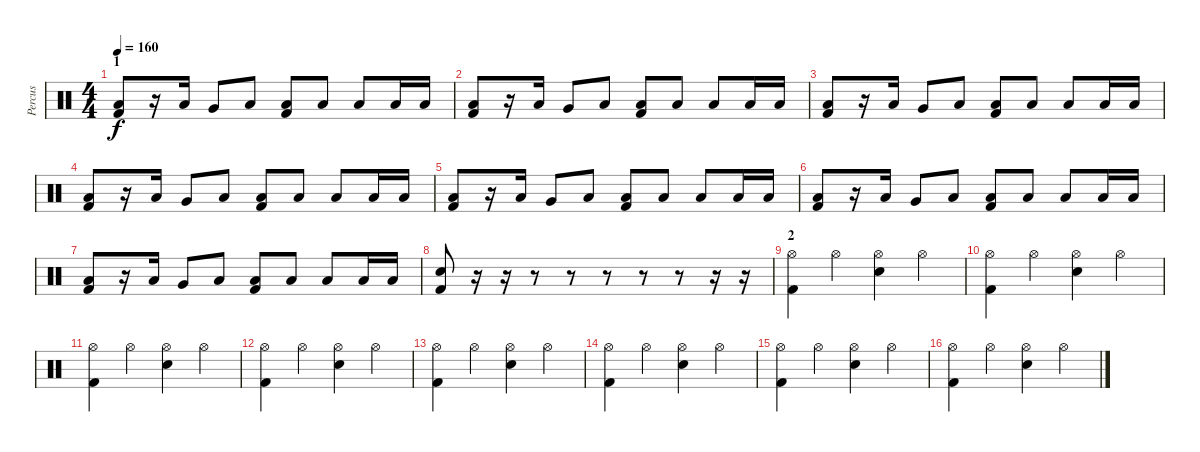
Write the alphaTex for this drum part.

\track ("Percus" "Percus") {instrument percussion}
\staff {score}
\articulation defaults
\ts (4 4)
\section ("" "1")
\tempo 160
\clef neutral
\ks c
("Low Tom (hit)" "Kick (hit) 2").8{dy f} r.16 "Low Tom (hit)".16 "Very Low Tom (hit)".8 "Low Floor Tom (hit)".8 ("Low Tom (hit)" "Kick (hit) 2").8 "Low Tom (hit)".8 "Low Floor Tom (hit)".8 "Low Floor Tom (hit)".16 "Low Floor Tom (hit)".16 |
("Low Tom (hit)" "Kick (hit) 2").8 r.16 "Low Tom (hit)".16 "Very Low Tom (hit)".8 "Low Floor Tom (hit)".8 ("Low Tom (hit)" "Kick (hit) 2").8 "Low Tom (hit)".8 "Low Floor Tom (hit)".8 "Low Floor Tom (hit)".16 "Low Floor Tom (hit)".16 |
("Low Tom (hit)" "Kick (hit) 2").8 r.16 "Low Tom (hit)".16 "Very Low Tom (hit)".8 "Low Floor Tom (hit)".8 ("Low Tom (hit)" "Kick (hit) 2").8 "Low Tom (hit)".8 "Low Floor Tom (hit)".8 "Low Floor Tom (hit)".16 "Low Floor Tom (hit)".16 |
("Low Tom (hit)" "Kick (hit) 2").8 r.16 "Low Tom (hit)".16 "Very Low Tom (hit)".8 "Low Floor Tom (hit)".8 ("Low Tom (hit)" "Kick (hit) 2").8 "Low Tom (hit)".8 "Low Floor Tom (hit)".8 "Low Floor Tom (hit)".16 "Low Floor Tom (hit)".16 |
("Low Tom (hit)" "Kick (hit) 2").8 r.16 "Low Tom (hit)".16 "Very Low Tom (hit)".8 "Low Floor Tom (hit)".8 ("Low Tom (hit)" "Kick (hit) 2").8 "Low Tom (hit)".8 "Low Floor Tom (hit)".8 "Low Floor Tom (hit)".16 "Low Floor Tom (hit)".16 |
("Low Tom (hit)" "Kick (hit) 2").8 r.16 "Low Tom (hit)".16 "Very Low Tom (hit)".8 "Low Floor Tom (hit)".8 ("Low Tom (hit)" "Kick (hit) 2").8 "Low Tom (hit)".8 "Low Floor Tom (hit)".8 "Low Floor Tom (hit)".16 "Low Floor Tom (hit)".16 |
("Low Tom (hit)" "Kick (hit) 2").8 r.16 "Low Tom (hit)".16 "Very Low Tom (hit)".8 "Low Floor Tom (hit)".8 ("Low Tom (hit)" "Kick (hit) 2").8 "Low Tom (hit)".8 "Low Floor Tom (hit)".8 "Low Floor Tom (hit)".16 "Low Floor Tom (hit)".16 |
("Electric Snare (hit)" "Kick (hit) 2").8 r.16 r.16 r.8 r.8 r.8 r.8 r.8 r.16 r.16 |
\section ("" "2")
("Hi-Hat (open)" "Kick (hit) 2").4 "Hi-Hat (open)".4 ("Hi-Hat (open)" "Electric Snare (hit)").4 "Hi-Hat (open)".4 |
("Hi-Hat (open)" "Kick (hit) 2").4 "Hi-Hat (open)".4 ("Hi-Hat (open)" "Electric Snare (hit)").4 "Hi-Hat (open)".4 |
("Hi-Hat (open)" "Kick (hit) 2").4 "Hi-Hat (open)".4 ("Hi-Hat (open)" "Electric Snare (hit)").4 "Hi-Hat (open)".4 |
("Hi-Hat (open)" "Kick (hit) 2").4 "Hi-Hat (open)".4 ("Hi-Hat (open)" "Electric Snare (hit)").4 "Hi-Hat (open)".4 |
("Hi-Hat (open)" "Kick (hit) 2").4 "Hi-Hat (open)".4 ("Hi-Hat (open)" "Electric Snare (hit)").4 "Hi-Hat (open)".4 |
("Hi-Hat (open)" "Kick (hit) 2").4 "Hi-Hat (open)".4 ("Hi-Hat (open)" "Electric Snare (hit)").4 "Hi-Hat (open)".4 |
("Hi-Hat (open)" "Kick (hit) 2").4 "Hi-Hat (open)".4 ("Hi-Hat (open)" "Electric Snare (hit)").4 "Hi-Hat (open)".4 |
("Hi-Hat (open)" "Kick (hit) 2").4 "Hi-Hat (open)".4 ("Hi-Hat (open)" "Electric Snare (hit)").4 "Hi-Hat (open)".4
